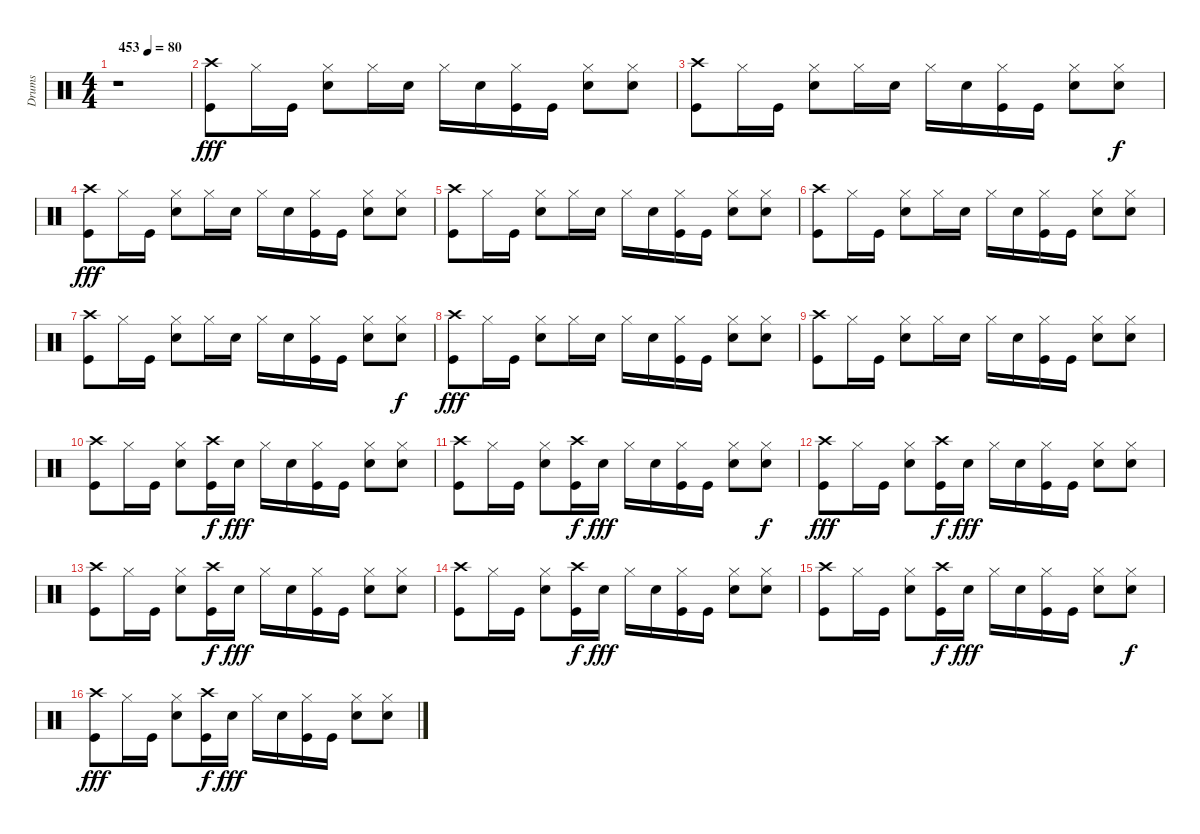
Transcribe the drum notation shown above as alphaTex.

\track ("Drums" "Drums") {instrument percussion}
\staff {score}
\articulation defaults
\ts (4 4)
\tempo (80 "453")
\clef neutral
\ks c
r.1{dy fff} |
("Crash high (hit)" "Kick (hit)").8 "Hi-Hat (closed)".16 "Kick (hit)".16 ("Hi-Hat (closed)" "Snare (hit) 2").8 "Hi-Hat (closed)".16 "Snare (hit) 2".16 "Hi-Hat (closed)".16 "Snare (hit) 2".16 ("Hi-Hat (closed)" "Kick (hit)").16 "Kick (hit)".16 ("Hi-Hat (closed)" "Snare (hit) 2").8 ("Hi-Hat (closed)" "Snare (hit) 2").8 |
("Crash high (hit)" "Kick (hit)").8 "Hi-Hat (closed)".16 "Kick (hit)".16 ("Hi-Hat (closed)" "Snare (hit) 2").8 "Hi-Hat (closed)".16 "Snare (hit) 2".16 "Hi-Hat (closed)".16 "Snare (hit) 2".16 ("Hi-Hat (closed)" "Kick (hit)").16 "Kick (hit)".16 ("Hi-Hat (closed)" "Snare (hit) 2").8 ("Hi-Hat (closed)" "Snare (hit) 2").8{dy f} |
("Crash high (hit)" "Kick (hit)").8{dy fff} "Hi-Hat (closed)".16 "Kick (hit)".16 ("Hi-Hat (closed)" "Snare (hit) 2").8 "Hi-Hat (closed)".16 "Snare (hit) 2".16 "Hi-Hat (closed)".16 "Snare (hit) 2".16 ("Hi-Hat (closed)" "Kick (hit)").16 "Kick (hit)".16 ("Hi-Hat (closed)" "Snare (hit) 2").8 ("Hi-Hat (closed)" "Snare (hit) 2").8 |
("Crash high (hit)" "Kick (hit)").8 "Hi-Hat (closed)".16 "Kick (hit)".16 ("Hi-Hat (closed)" "Snare (hit) 2").8 "Hi-Hat (closed)".16 "Snare (hit) 2".16 "Hi-Hat (closed)".16 "Snare (hit) 2".16 ("Hi-Hat (closed)" "Kick (hit)").16 "Kick (hit)".16 ("Hi-Hat (closed)" "Snare (hit) 2").8 ("Hi-Hat (closed)" "Snare (hit) 2").8 |
("Crash high (hit)" "Kick (hit)").8 "Hi-Hat (closed)".16 "Kick (hit)".16 ("Hi-Hat (closed)" "Snare (hit) 2").8 "Hi-Hat (closed)".16 "Snare (hit) 2".16 "Hi-Hat (closed)".16 "Snare (hit) 2".16 ("Hi-Hat (closed)" "Kick (hit)").16 "Kick (hit)".16 ("Hi-Hat (closed)" "Snare (hit) 2").8 ("Hi-Hat (closed)" "Snare (hit) 2").8 |
("Crash high (hit)" "Kick (hit)").8 "Hi-Hat (closed)".16 "Kick (hit)".16 ("Hi-Hat (closed)" "Snare (hit) 2").8 "Hi-Hat (closed)".16 "Snare (hit) 2".16 "Hi-Hat (closed)".16 "Snare (hit) 2".16 ("Hi-Hat (closed)" "Kick (hit)").16 "Kick (hit)".16 ("Hi-Hat (closed)" "Snare (hit) 2").8 ("Hi-Hat (closed)" "Snare (hit) 2").8{dy f} |
("Crash high (hit)" "Kick (hit)").8{dy fff} "Hi-Hat (closed)".16 "Kick (hit)".16 ("Hi-Hat (closed)" "Snare (hit) 2").8 "Hi-Hat (closed)".16 "Snare (hit) 2".16 "Hi-Hat (closed)".16 "Snare (hit) 2".16 ("Hi-Hat (closed)" "Kick (hit)").16 "Kick (hit)".16 ("Hi-Hat (closed)" "Snare (hit) 2").8 ("Hi-Hat (closed)" "Snare (hit) 2").8 |
("Crash high (hit)" "Kick (hit)").8 "Hi-Hat (closed)".16 "Kick (hit)".16 ("Hi-Hat (closed)" "Snare (hit) 2").8 "Hi-Hat (closed)".16 "Snare (hit) 2".16 "Hi-Hat (closed)".16 "Snare (hit) 2".16 ("Hi-Hat (closed)" "Kick (hit)").16 "Kick (hit)".16 ("Hi-Hat (closed)" "Snare (hit) 2").8 ("Hi-Hat (closed)" "Snare (hit) 2").8 |
("Crash high (hit)" "Kick (hit)").8 "Hi-Hat (closed)".16 "Kick (hit)".16 ("Hi-Hat (closed)" "Snare (hit) 2").8 ("Crash high (hit)" "Kick (hit)").16{dy f} "Snare (hit) 2".16{dy fff} "Hi-Hat (closed)".16 "Snare (hit) 2".16 ("Hi-Hat (closed)" "Kick (hit)").16 "Kick (hit)".16 ("Hi-Hat (closed)" "Snare (hit) 2").8 ("Hi-Hat (closed)" "Snare (hit) 2").8 |
("Crash high (hit)" "Kick (hit)").8 "Hi-Hat (closed)".16 "Kick (hit)".16 ("Hi-Hat (closed)" "Snare (hit) 2").8 ("Crash high (hit)" "Kick (hit)").16{dy f} "Snare (hit) 2".16{dy fff} "Hi-Hat (closed)".16 "Snare (hit) 2".16 ("Hi-Hat (closed)" "Kick (hit)").16 "Kick (hit)".16 ("Hi-Hat (closed)" "Snare (hit) 2").8 ("Hi-Hat (closed)" "Snare (hit) 2").8{dy f} |
("Crash high (hit)" "Kick (hit)").8{dy fff} "Hi-Hat (closed)".16 "Kick (hit)".16 ("Hi-Hat (closed)" "Snare (hit) 2").8 ("Crash high (hit)" "Kick (hit)").16{dy f} "Snare (hit) 2".16{dy fff} "Hi-Hat (closed)".16 "Snare (hit) 2".16 ("Hi-Hat (closed)" "Kick (hit)").16 "Kick (hit)".16 ("Hi-Hat (closed)" "Snare (hit) 2").8 ("Hi-Hat (closed)" "Snare (hit) 2").8 |
("Crash high (hit)" "Kick (hit)").8 "Hi-Hat (closed)".16 "Kick (hit)".16 ("Hi-Hat (closed)" "Snare (hit) 2").8 ("Crash high (hit)" "Kick (hit)").16{dy f} "Snare (hit) 2".16{dy fff} "Hi-Hat (closed)".16 "Snare (hit) 2".16 ("Hi-Hat (closed)" "Kick (hit)").16 "Kick (hit)".16 ("Hi-Hat (closed)" "Snare (hit) 2").8 ("Hi-Hat (closed)" "Snare (hit) 2").8 |
("Crash high (hit)" "Kick (hit)").8 "Hi-Hat (closed)".16 "Kick (hit)".16 ("Hi-Hat (closed)" "Snare (hit) 2").8 ("Crash high (hit)" "Kick (hit)").16{dy f} "Snare (hit) 2".16{dy fff} "Hi-Hat (closed)".16 "Snare (hit) 2".16 ("Hi-Hat (closed)" "Kick (hit)").16 "Kick (hit)".16 ("Hi-Hat (closed)" "Snare (hit) 2").8 ("Hi-Hat (closed)" "Snare (hit) 2").8 |
("Crash high (hit)" "Kick (hit)").8 "Hi-Hat (closed)".16 "Kick (hit)".16 ("Hi-Hat (closed)" "Snare (hit) 2").8 ("Crash high (hit)" "Kick (hit)").16{dy f} "Snare (hit) 2".16{dy fff} "Hi-Hat (closed)".16 "Snare (hit) 2".16 ("Hi-Hat (closed)" "Kick (hit)").16 "Kick (hit)".16 ("Hi-Hat (closed)" "Snare (hit) 2").8 ("Hi-Hat (closed)" "Snare (hit) 2").8{dy f} |
("Crash high (hit)" "Kick (hit)").8{dy fff} "Hi-Hat (closed)".16 "Kick (hit)".16 ("Hi-Hat (closed)" "Snare (hit) 2").8 ("Crash high (hit)" "Kick (hit)").16{dy f} "Snare (hit) 2".16{dy fff} "Hi-Hat (closed)".16 "Snare (hit) 2".16 ("Hi-Hat (closed)" "Kick (hit)").16 "Kick (hit)".16 ("Hi-Hat (closed)" "Snare (hit) 2").8 ("Hi-Hat (closed)" "Snare (hit) 2").8
